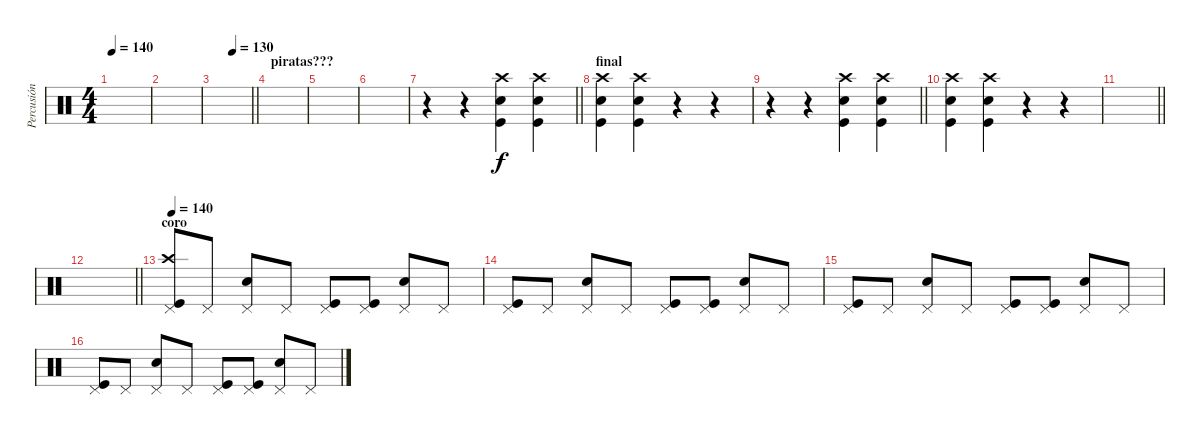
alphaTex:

\track ("Percusión" "Percusión") {instrument percussion}
\staff {score}
\articulation defaults
\ts (4 4)
\tempo 140
\clef neutral
\ks c
|
|
\tempo (130 0.5)
\barLineRight lightlight
|
\section ("" "piratas???")
|
|
|
\barLineRight lightlight
r.4 r.4 ("Kick (hit)" "Snare (hit) 2" "Crash high (hit)").4 ("Snare (hit) 2" "Kick (hit)" "Crash high (hit)").4 |
\section ("" "final")
("Kick (hit)" "Snare (hit) 2" "Crash high (hit)").4 ("Snare (hit) 2" "Kick (hit)" "Crash high (hit)").4 r.4 r.4 |
\barLineRight lightlight
r.4 r.4 ("Kick (hit)" "Snare (hit) 2" "Crash high (hit)").4 ("Snare (hit) 2" "Kick (hit)" "Crash high (hit)").4 |
("Kick (hit)" "Snare (hit) 2" "Crash high (hit)").4 ("Snare (hit) 2" "Kick (hit)" "Crash high (hit)").4 r.4 r.4 |
\barLineRight lightlight
|
\barLineRight lightlight
|
\section ("" "coro")
\tempo 140
("Crash high (hit)" "Kick (hit)" "Pedal Hi-Hat (hit)").8 "Pedal Hi-Hat (hit)".8 ("Snare (hit) 2" "Pedal Hi-Hat (hit)").8 "Pedal Hi-Hat (hit)".8 ("Kick (hit)" "Pedal Hi-Hat (hit)").8 ("Kick (hit)" "Pedal Hi-Hat (hit)").8 ("Snare (hit) 2" "Pedal Hi-Hat (hit)").8 "Pedal Hi-Hat (hit)".8 |
("Kick (hit)" "Pedal Hi-Hat (hit)").8 "Pedal Hi-Hat (hit)".8 ("Snare (hit) 2" "Pedal Hi-Hat (hit)").8 "Pedal Hi-Hat (hit)".8 ("Kick (hit)" "Pedal Hi-Hat (hit)").8 ("Kick (hit)" "Pedal Hi-Hat (hit)").8 ("Snare (hit) 2" "Pedal Hi-Hat (hit)").8 "Pedal Hi-Hat (hit)".8 |
("Kick (hit)" "Pedal Hi-Hat (hit)").8 "Pedal Hi-Hat (hit)".8 ("Snare (hit) 2" "Pedal Hi-Hat (hit)").8 "Pedal Hi-Hat (hit)".8 ("Kick (hit)" "Pedal Hi-Hat (hit)").8 ("Kick (hit)" "Pedal Hi-Hat (hit)").8 ("Snare (hit) 2" "Pedal Hi-Hat (hit)").8 "Pedal Hi-Hat (hit)".8 |
("Kick (hit)" "Pedal Hi-Hat (hit)").8 "Pedal Hi-Hat (hit)".8 ("Snare (hit) 2" "Pedal Hi-Hat (hit)").8 "Pedal Hi-Hat (hit)".8 ("Kick (hit)" "Pedal Hi-Hat (hit)").8 ("Kick (hit)" "Pedal Hi-Hat (hit)").8 ("Snare (hit) 2" "Pedal Hi-Hat (hit)").8 "Pedal Hi-Hat (hit)".8
